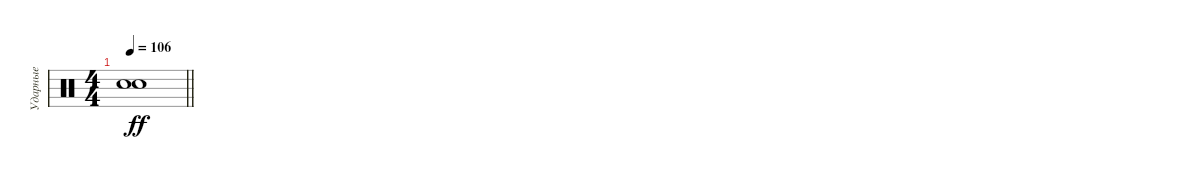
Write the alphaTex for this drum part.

\track ("Ударные" "Ударные") {instrument percussion}
\staff {score}
\articulation defaults
\ts (4 4)
\tempo 106
\clef neutral
\barLineRight lightlight
\ks c
("Snare (hit) 2" "Electric Snare (hit)").1{dy ff}
